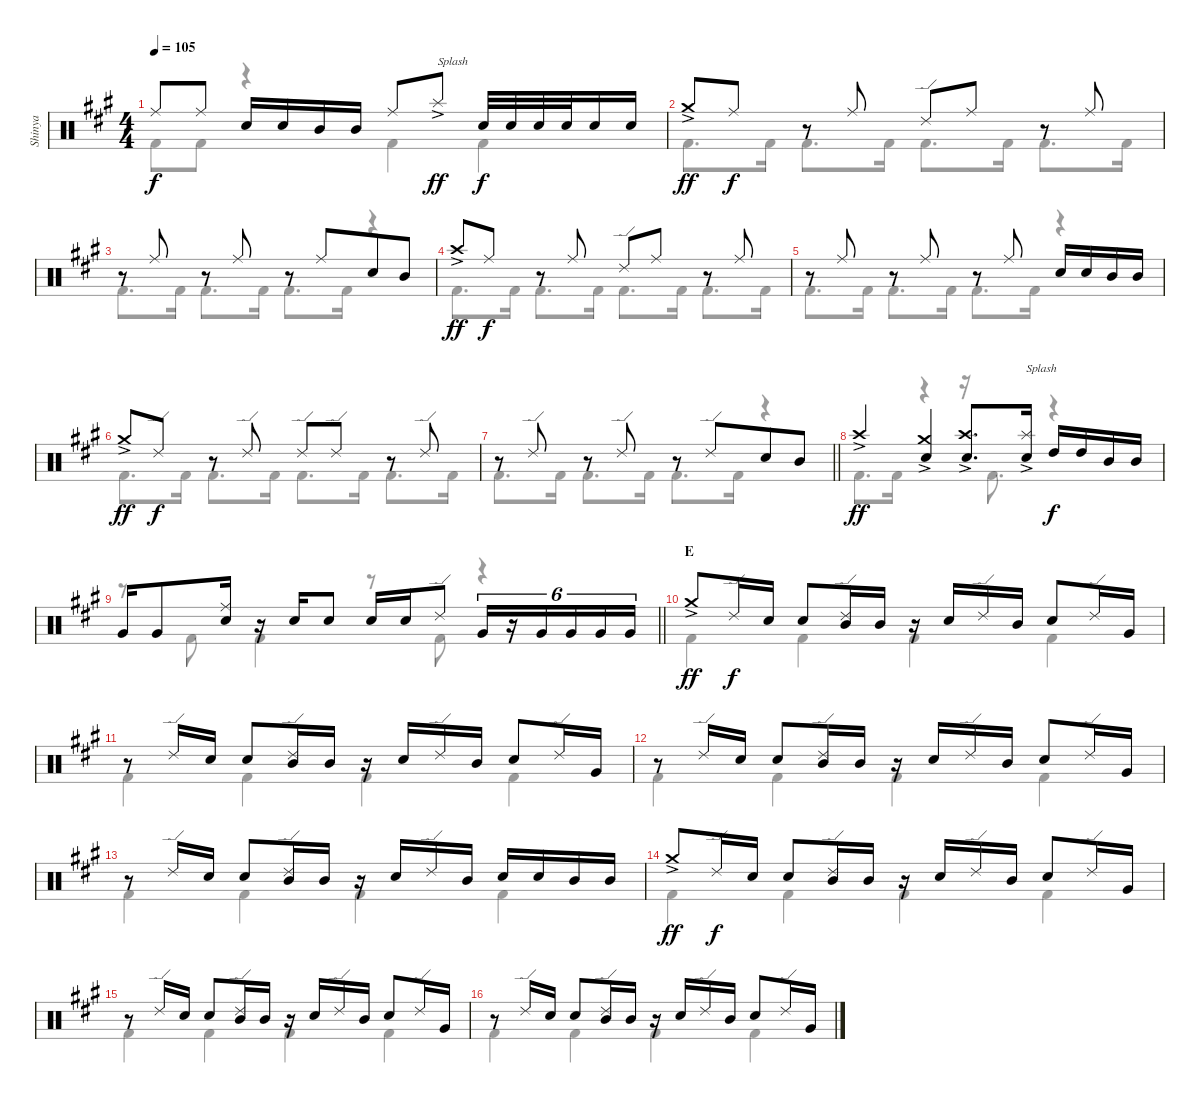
\track ("Shinya" "Shinya") {instrument percussion}
\staff {score}
\articulation defaults
\voice
\ts (4 4)
\tempo 105
\clef neutral
\ks f#minor "Ride (middle)".8{dy f} "Ride (middle)".8 "Snare (hit) 2".16 "Snare (hit) 2".16 "Mid Tom (hit)".16 "Mid Tom (hit)".16 "Ride (middle)".8 "Splash (hit)"{ac}.8{txt "Splash" dy ff} "Snare (hit) 2".32{dy f} "Snare (hit) 2".32 "Snare (hit) 2".32 "Snare (hit) 2".32 "Snare (hit) 2".16 "Snare (hit) 2".16
|
"Crash medium (hit)"{ac}.8{dy ff} "Ride (middle)".8{dy f} r.8 "Ride (middle)".8 "Ride (edge) 2".8 "Ride (middle)".8 r.8 "Ride (middle)".8 |
r.8 "Ride (middle)".8 r.8 "Ride (middle)".8 r.8 "Ride (middle)".8{beam merge} "Snare (hit) 2".8 "Mid Tom (hit)".8 |
"Crash high (hit)"{ac}.8{dy ff} "Ride (middle)".8{dy f} r.8 "Ride (middle)".8 "Ride (edge) 2".8 "Ride (middle)".8 r.8 "Ride (middle)".8 |
r.8 "Ride (middle)".8 r.8 "Ride (middle)".8 r.8 "Ride (middle)".8 "Snare (hit) 2".16 "Snare (hit) 2".16 "Mid Tom (hit)".16 "Mid Tom (hit)".16 |
"Crash medium (hit)"{ac}.8{dy ff} "Ride (edge) 2".8{dy f} r.8 "Ride (edge) 2".8 "Ride (edge) 2".8 "Ride (edge) 2".8 r.8 "Ride (edge) 2".8 |
\barLineRight lightlight
r.8 "Ride (edge) 2".8 r.8 "Ride (edge) 2".8 r.8 "Ride (edge) 2".8{beam merge} "Snare (hit) 2".8 "Mid Tom (hit)".8 |
\section ("" "")
"Crash high (hit)"{ac}.4{dy ff} ("Crash medium (hit)"{ac} "Snare (hit) 2").4 ("Crash high (hit)"{ac} "Snare (hit) 2").8{d} ("Splash (hit)"{ac} "Snare (hit) 2").16{txt "Splash"} "High Tom (hit)".16{dy f} "High Tom (hit)".16 "Mid Tom (hit)".16 "Mid Tom (hit)".16 |
\barLineRight lightlight "Very Low Tom (hit)".16 "Very Low Tom (hit)".8
("Ride (middle)" "Snare (hit) 2").16 r.16 "Snare (hit) 2".16 "Snare (hit) 2".8 "Snare (hit) 2".16 "Snare (hit) 2".16 "Ride (edge) 2".8 "Very Low Tom (hit)".16{tu (6 4)} r.16{tu (6 4)} "Very Low Tom (hit)".16{tu (6 4)} "Very Low Tom (hit)".16{tu (6 4)} "Very Low Tom (hit)".16{tu (6 4)} "Very Low Tom (hit)".16{tu (6 4)} |
\section ("" "E")
"Crash medium (hit)"{ac}.8{dy ff} "Ride (edge) 2".16{dy f} "Snare (hit) 2".16 "Snare (hit) 2".8 ("Ride (edge) 2" "Mid Tom (hit)").16 "Mid Tom (hit)".16 r.16 "Snare (hit) 2".16 "Ride (edge) 2".16 "Mid Tom (hit)".16 "Snare (hit) 2".8 "Ride (edge) 2".16 "Very Low Tom (hit)".16 |
r.8 "Ride (edge) 2".16 "Snare (hit) 2".16 "Snare (hit) 2".8 ("Ride (edge) 2" "Mid Tom (hit)").16 "Mid Tom (hit)".16 r.16 "Snare (hit) 2".16 "Ride (edge) 2".16 "Mid Tom (hit)".16 "Snare (hit) 2".8 "Ride (edge) 2".16 "Very Low Tom (hit)".16 |
r.8 "Ride (edge) 2".16 "Snare (hit) 2".16 "Snare (hit) 2".8 ("Ride (edge) 2" "Mid Tom (hit)").16 "Mid Tom (hit)".16 r.16 "Snare (hit) 2".16 "Ride (edge) 2".16 "Mid Tom (hit)".16 "Snare (hit) 2".8 "Ride (edge) 2".16 "Very Low Tom (hit)".16 |
r.8 "Ride (edge) 2".16 "Snare (hit) 2".16 "Snare (hit) 2".8 ("Ride (edge) 2" "Mid Tom (hit)").16 "Mid Tom (hit)".16 r.16 "Snare (hit) 2".16 "Ride (edge) 2".16 "Mid Tom (hit)".16 "Snare (hit) 2".16 "Snare (hit) 2".16 "Mid Tom (hit)".16 "Mid Tom (hit)".16 |
"Crash medium (hit)"{ac}.8{dy ff} "Ride (edge) 2".16{dy f} "Snare (hit) 2".16 "Snare (hit) 2".8 ("Ride (edge) 2" "Mid Tom (hit)").16 "Mid Tom (hit)".16 r.16 "Snare (hit) 2".16 "Ride (edge) 2".16 "Mid Tom (hit)".16 "Snare (hit) 2".8 "Ride (edge) 2".16 "Very Low Tom (hit)".16 |
r.8 "Ride (edge) 2".16 "Snare (hit) 2".16 "Snare (hit) 2".8 ("Ride (edge) 2" "Mid Tom (hit)").16 "Mid Tom (hit)".16 r.16 "Snare (hit) 2".16 "Ride (edge) 2".16 "Mid Tom (hit)".16 "Snare (hit) 2".8 "Ride (edge) 2".16 "Very Low Tom (hit)".16 |
r.8 "Ride (edge) 2".16 "Snare (hit) 2".16 "Snare (hit) 2".8 ("Ride (edge) 2" "Mid Tom (hit)").16 "Mid Tom (hit)".16 r.16 "Snare (hit) 2".16 "Ride (edge) 2".16 "Mid Tom (hit)".16 "Snare (hit) 2".8 "Ride (edge) 2".16 "Very Low Tom (hit)".16
\voice
\clef neutral
\ottava regular
\simile none
\ks f#minor "Kick (hit) 2".8{dy f} "Kick (hit) 2".8
r.4 "Kick (hit) 2".4 "Kick (hit) 2".4 |
"Kick (hit) 2".8{d} "Kick (hit) 2".16 "Kick (hit) 2".8{d} "Kick (hit) 2".16 "Kick (hit) 2".8{d} "Kick (hit) 2".16 "Kick (hit) 2".8{d} "Kick (hit) 2".16 |
"Kick (hit) 2".8{d} "Kick (hit) 2".16 "Kick (hit) 2".8{d} "Kick (hit) 2".16 "Kick (hit) 2".8{d} "Kick (hit) 2".16 r.4 |
"Kick (hit) 2".8{d} "Kick (hit) 2".16 "Kick (hit) 2".8{d} "Kick (hit) 2".16 "Kick (hit) 2".8{d} "Kick (hit) 2".16 "Kick (hit) 2".8{d} "Kick (hit) 2".16 |
"Kick (hit) 2".8{d} "Kick (hit) 2".16 "Kick (hit) 2".8{d} "Kick (hit) 2".16 "Kick (hit) 2".8{d} "Kick (hit) 2".16 r.4 |
"Kick (hit) 2".8{d} "Kick (hit) 2".16 "Kick (hit) 2".8{d} "Kick (hit) 2".16 "Kick (hit) 2".8{d} "Kick (hit) 2".16 "Kick (hit) 2".8{d} "Kick (hit) 2".16 |
\barLineRight lightlight "Kick (hit) 2".8{d} "Kick (hit) 2".16 "Kick (hit) 2".8{d} "Kick (hit) 2".16 "Kick (hit) 2".8{d} "Kick (hit) 2".16
r.4 |
"Kick (hit) 2".8{d} "Kick (hit) 2".16 r.4 r.16 "Kick (hit) 2".8{d} r.4 |
\barLineRight lightlight
r.8 "Kick (hit) 2".8 "Kick (hit) 2".4 r.8 "Kick (hit) 2".8 r.4 |
"Kick (hit) 2".4 "Kick (hit) 2".4 "Kick (hit) 2".4 "Kick (hit) 2".4 |
"Kick (hit) 2".4 "Kick (hit) 2".4 "Kick (hit) 2".4 "Kick (hit) 2".4 |
"Kick (hit) 2".4 "Kick (hit) 2".4 "Kick (hit) 2".4 "Kick (hit) 2".4 |
"Kick (hit) 2".4 "Kick (hit) 2".4 "Kick (hit) 2".4 "Kick (hit) 2".4 |
"Kick (hit) 2".4 "Kick (hit) 2".4 "Kick (hit) 2".4 "Kick (hit) 2".4 |
"Kick (hit) 2".4 "Kick (hit) 2".4 "Kick (hit) 2".4 "Kick (hit) 2".4 |
"Kick (hit) 2".4 "Kick (hit) 2".4 "Kick (hit) 2".4 "Kick (hit) 2".4
